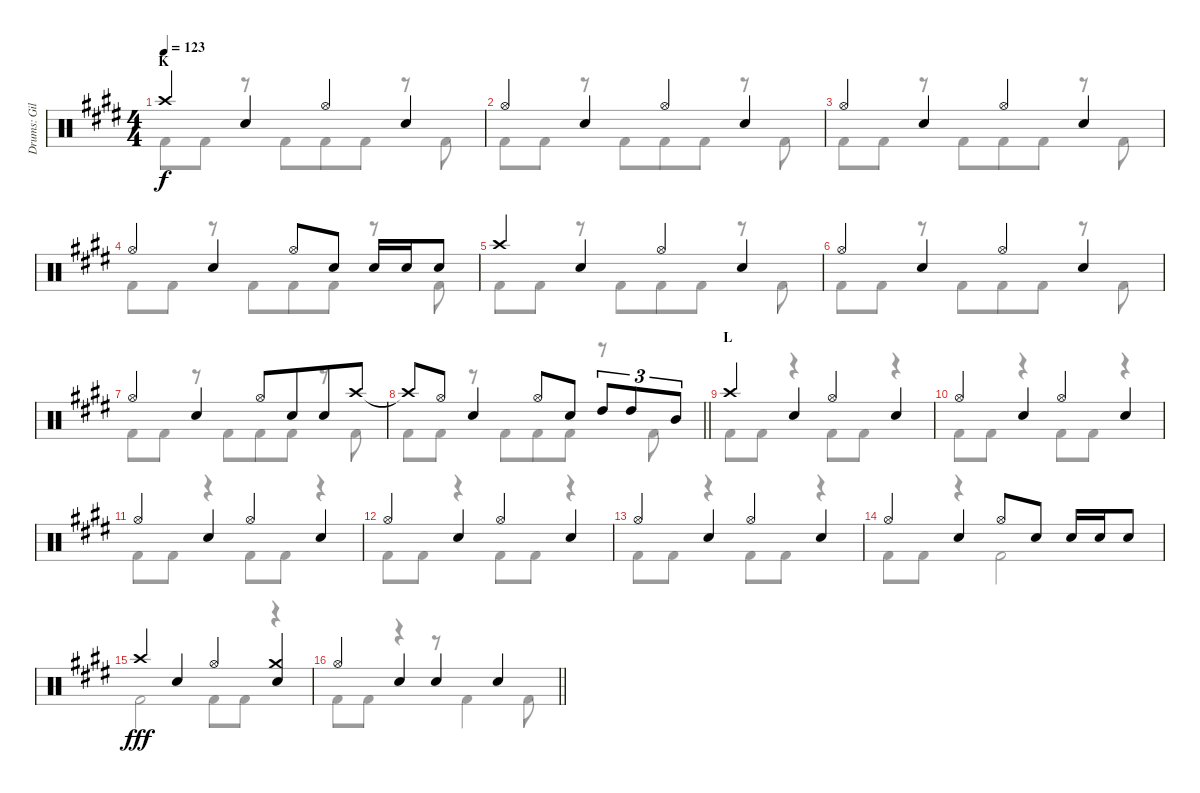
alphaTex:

\track ("Drums: Gil" "Drums: Gil") {instrument percussion}
\staff {score}
\articulation defaults
\voice
\ts (4 4)
\section ("" "K")
\tempo 123
\clef neutral
\ks e "Crash high (hit)".4{dy f} "Snare (hit) 2".4 "Hi-Hat (open)".4 "Snare (hit) 2".4
|
"Hi-Hat (open)".4 "Snare (hit) 2".4 "Hi-Hat (open)".4 "Snare (hit) 2".4 |
"Hi-Hat (open)".4 "Snare (hit) 2".4 "Hi-Hat (open)".4 "Snare (hit) 2".4 |
"Hi-Hat (open)".4 "Snare (hit) 2".4 "Hi-Hat (open)".8 "Snare (hit) 2".8 "Snare (hit) 2".16 "Snare (hit) 2".16 "Snare (hit) 2".8 |
"Crash high (hit)".4 "Snare (hit) 2".4 "Hi-Hat (open)".4 "Snare (hit) 2".4 |
"Hi-Hat (open)".4 "Snare (hit) 2".4 "Hi-Hat (open)".4 "Snare (hit) 2".4 |
"Hi-Hat (open)".4 "Snare (hit) 2".4 "Hi-Hat (open)".8 "Snare (hit) 2".8{beam merge} "Snare (hit) 2".8 "Crash high (hit)".8 |
\barLineRight lightlight "Crash high (hit)"{t}.8 "Hi-Hat (open)".8 "Snare (hit) 2".4 "Hi-Hat (open)".8 "Snare (hit) 2".8 "High Tom (hit)".8{tu (3 2)} "High Tom (hit)".8{tu (3 2)} "Mid Tom (hit)".8{tu (3 2)}
|
\section ("" "L")
"Crash high (hit)".4 "Snare (hit) 2".4 "Hi-Hat (open)".4 "Snare (hit) 2".4 |
"Hi-Hat (open)".4 "Snare (hit) 2".4 "Hi-Hat (open)".4 "Snare (hit) 2".4 |
"Hi-Hat (open)".4 "Snare (hit) 2".4 "Hi-Hat (open)".4 "Snare (hit) 2".4 |
"Hi-Hat (open)".4 "Snare (hit) 2".4 "Hi-Hat (open)".4 "Snare (hit) 2".4 |
"Hi-Hat (open)".4 "Snare (hit) 2".4 "Hi-Hat (open)".4 "Snare (hit) 2".4 |
"Hi-Hat (open)".4 "Snare (hit) 2".4 "Hi-Hat (open)".8 "Snare (hit) 2".8 "Snare (hit) 2".16 "Snare (hit) 2".16 "Snare (hit) 2".8 |
"Crash high (hit)".4{dy fff} "Snare (hit) 2".4 "Hi-Hat (open)".4 ("Crash medium (hit)" "Snare (hit) 2").4 |
\barLineRight lightlight "Hi-Hat (open)".4 "Snare (hit) 2".4 "Snare (hit) 2".4 "Snare (hit) 2".4
\voice
\clef neutral
\ottava regular
\simile none
\ks e "Kick (hit) 2".8{dy f} "Kick (hit) 2".8
r.8 "Kick (hit) 2".8{beam merge} "Kick (hit) 2".8 "Kick (hit) 2".8 r.8 "Kick (hit) 2".8 |
"Kick (hit) 2".8 "Kick (hit) 2".8 r.8 "Kick (hit) 2".8{beam merge} "Kick (hit) 2".8 "Kick (hit) 2".8 r.8 "Kick (hit) 2".8 |
"Kick (hit) 2".8 "Kick (hit) 2".8 r.8 "Kick (hit) 2".8{beam merge} "Kick (hit) 2".8 "Kick (hit) 2".8 r.8 "Kick (hit) 2".8 |
"Kick (hit) 2".8 "Kick (hit) 2".8 r.8 "Kick (hit) 2".8{beam merge} "Kick (hit) 2".8 "Kick (hit) 2".8 r.8 "Kick (hit) 2".8 |
"Kick (hit) 2".8 "Kick (hit) 2".8 r.8 "Kick (hit) 2".8{beam merge} "Kick (hit) 2".8 "Kick (hit) 2".8 r.8 "Kick (hit) 2".8 |
"Kick (hit) 2".8 "Kick (hit) 2".8 r.8 "Kick (hit) 2".8{beam merge} "Kick (hit) 2".8 "Kick (hit) 2".8 r.8 "Kick (hit) 2".8 |
"Kick (hit) 2".8 "Kick (hit) 2".8 r.8 "Kick (hit) 2".8{beam merge} "Kick (hit) 2".8 "Kick (hit) 2".8 r.8 "Kick (hit) 2".8 |
\barLineRight lightlight "Kick (hit) 2".8 "Kick (hit) 2".8
r.8 "Kick (hit) 2".8{beam merge} "Kick (hit) 2".8 "Kick (hit) 2".8 r.8 "Kick (hit) 2".8 |
"Kick (hit) 2".8 "Kick (hit) 2".8 r.4{beam merge} "Kick (hit) 2".8 "Kick (hit) 2".8 r.4 |
"Kick (hit) 2".8 "Kick (hit) 2".8 r.4{beam merge} "Kick (hit) 2".8 "Kick (hit) 2".8 r.4 |
"Kick (hit) 2".8 "Kick (hit) 2".8 r.4{beam merge} "Kick (hit) 2".8 "Kick (hit) 2".8 r.4 |
"Kick (hit) 2".8 "Kick (hit) 2".8 r.4{beam merge} "Kick (hit) 2".8 "Kick (hit) 2".8 r.4 |
"Kick (hit) 2".8 "Kick (hit) 2".8 r.4{beam merge} "Kick (hit) 2".8 "Kick (hit) 2".8 r.4 |
"Kick (hit) 2".8 "Kick (hit) 2".8 r.4{beam merge} "Kick (hit) 2".2 |
"Kick (hit) 2".2{dy fff} "Kick (hit) 2".8 "Kick (hit) 2".8 r.4 |
\barLineRight lightlight "Kick (hit) 2".8 "Kick (hit) 2".8
r.4 r.8 "Kick (hit) 2".4 "Kick (hit) 2".8
